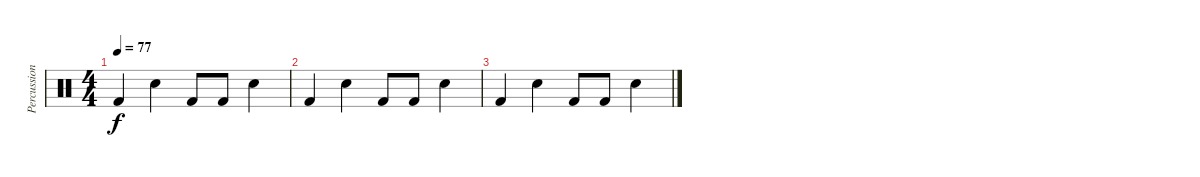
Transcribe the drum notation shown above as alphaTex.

\track ("Percussion" "Percussion") {instrument percussion}
\staff {score}
\articulation defaults
\ts (4 4)
\tempo 77
\clef neutral
\ks c "Kick (hit) 2".4{dy f} "Snare (hit) 2".4 "Kick (hit) 2".8 "Kick (hit) 2".8 "Snare (hit) 2".4
|
"Kick (hit) 2".4 "Snare (hit) 2".4 "Kick (hit) 2".8 "Kick (hit) 2".8 "Snare (hit) 2".4 |
"Kick (hit) 2".4 "Snare (hit) 2".4 "Kick (hit) 2".8 "Kick (hit) 2".8 "Snare (hit) 2".4
